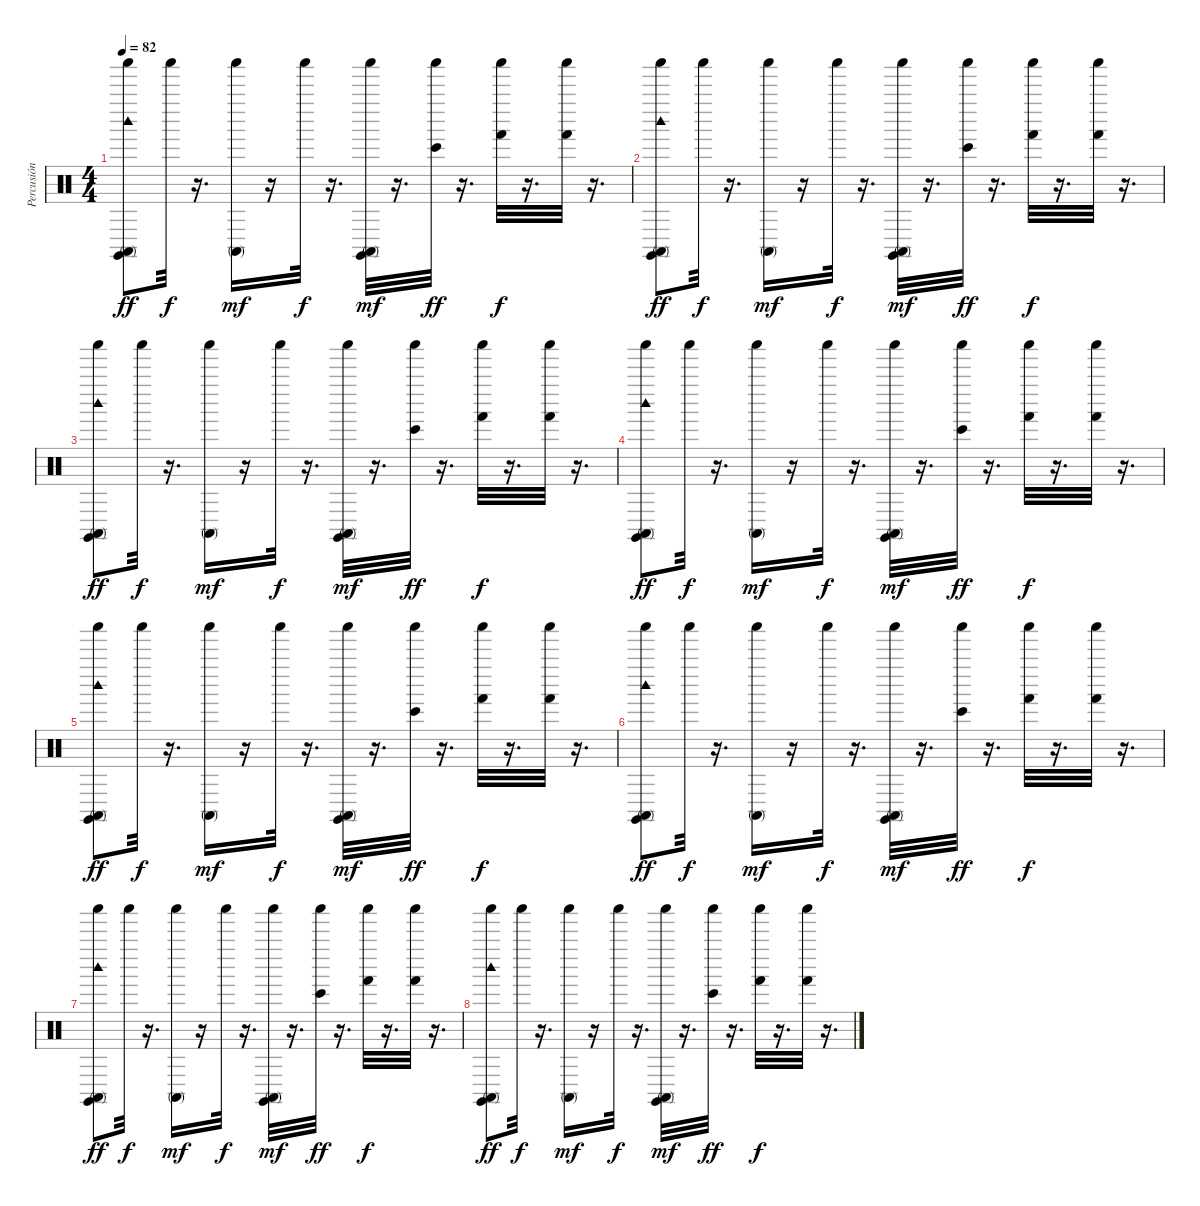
\track ("Percusión" "Percusión") {instrument percussion}
\staff {score}
\articulation defaults
\ts (4 4)
\tempo 82
\clef neutral
\ks c
("Woodblock high (hit)" "Conga high (mute)" "Shaker (hit)" "Claves (hit)").8{dy ff} "Shaker (hit)".32{dy f} r.16{d} ("Shaker (hit)" "Conga high (mute)").16{dy mf} r.16 "Shaker (hit)".32{dy f} r.16{d} ("Claves (hit)" "Shaker (hit)" "Conga high (mute)").32{dy mf} r.16{d} ("Shaker (hit)" "Bongo High (hit)").32{dy ff} r.16{d} ("Shaker (hit)" "Hand (hit)").32{dy f} r.16{d} ("Shaker (hit)" "Hand (hit)").32 r.16{d} |
("Woodblock high (hit)" "Conga high (mute)" "Shaker (hit)" "Claves (hit)").8{dy ff} "Shaker (hit)".32{dy f} r.16{d} ("Shaker (hit)" "Conga high (mute)").16{dy mf} r.16 "Shaker (hit)".32{dy f} r.16{d} ("Claves (hit)" "Shaker (hit)" "Conga high (mute)").32{dy mf} r.16{d} ("Shaker (hit)" "Bongo High (hit)").32{dy ff} r.16{d} ("Shaker (hit)" "Hand (hit)").32{dy f} r.16{d} ("Shaker (hit)" "Hand (hit)").32 r.16{d} |
("Woodblock high (hit)" "Conga high (mute)" "Shaker (hit)" "Claves (hit)").8{dy ff} "Shaker (hit)".32{dy f} r.16{d} ("Shaker (hit)" "Conga high (mute)").16{dy mf} r.16 "Shaker (hit)".32{dy f} r.16{d} ("Claves (hit)" "Shaker (hit)" "Conga high (mute)").32{dy mf} r.16{d} ("Shaker (hit)" "Bongo High (hit)").32{dy ff} r.16{d} ("Shaker (hit)" "Hand (hit)").32{dy f} r.16{d} ("Shaker (hit)" "Hand (hit)").32 r.16{d} |
("Woodblock high (hit)" "Conga high (mute)" "Shaker (hit)" "Claves (hit)").8{dy ff} "Shaker (hit)".32{dy f} r.16{d} ("Shaker (hit)" "Conga high (mute)").16{dy mf} r.16 "Shaker (hit)".32{dy f} r.16{d} ("Claves (hit)" "Shaker (hit)" "Conga high (mute)").32{dy mf} r.16{d} ("Shaker (hit)" "Bongo High (hit)").32{dy ff} r.16{d} ("Shaker (hit)" "Hand (hit)").32{dy f} r.16{d} ("Shaker (hit)" "Hand (hit)").32 r.16{d} |
("Woodblock high (hit)" "Conga high (mute)" "Shaker (hit)" "Claves (hit)").8{dy ff} "Shaker (hit)".32{dy f} r.16{d} ("Shaker (hit)" "Conga high (mute)").16{dy mf} r.16 "Shaker (hit)".32{dy f} r.16{d} ("Claves (hit)" "Shaker (hit)" "Conga high (mute)").32{dy mf} r.16{d} ("Shaker (hit)" "Bongo High (hit)").32{dy ff} r.16{d} ("Shaker (hit)" "Hand (hit)").32{dy f} r.16{d} ("Shaker (hit)" "Hand (hit)").32 r.16{d} |
("Woodblock high (hit)" "Conga high (mute)" "Shaker (hit)" "Claves (hit)").8{dy ff} "Shaker (hit)".32{dy f} r.16{d} ("Shaker (hit)" "Conga high (mute)").16{dy mf} r.16 "Shaker (hit)".32{dy f} r.16{d} ("Claves (hit)" "Shaker (hit)" "Conga high (mute)").32{dy mf} r.16{d} ("Shaker (hit)" "Bongo High (hit)").32{dy ff} r.16{d} ("Shaker (hit)" "Hand (hit)").32{dy f} r.16{d} ("Shaker (hit)" "Hand (hit)").32 r.16{d} |
("Woodblock high (hit)" "Conga high (mute)" "Shaker (hit)" "Claves (hit)").8{dy ff} "Shaker (hit)".32{dy f} r.16{d} ("Shaker (hit)" "Conga high (mute)").16{dy mf} r.16 "Shaker (hit)".32{dy f} r.16{d} ("Claves (hit)" "Shaker (hit)" "Conga high (mute)").32{dy mf} r.16{d} ("Shaker (hit)" "Bongo High (hit)").32{dy ff} r.16{d} ("Shaker (hit)" "Hand (hit)").32{dy f} r.16{d} ("Shaker (hit)" "Hand (hit)").32 r.16{d} |
("Woodblock high (hit)" "Conga high (mute)" "Shaker (hit)" "Claves (hit)").8{dy ff} "Shaker (hit)".32{dy f} r.16{d} ("Shaker (hit)" "Conga high (mute)").16{dy mf} r.16 "Shaker (hit)".32{dy f} r.16{d} ("Claves (hit)" "Shaker (hit)" "Conga high (mute)").32{dy mf} r.16{d} ("Shaker (hit)" "Bongo High (hit)").32{dy ff} r.16{d} ("Shaker (hit)" "Hand (hit)").32{dy f} r.16{d} ("Shaker (hit)" "Hand (hit)").32 r.16{d}
